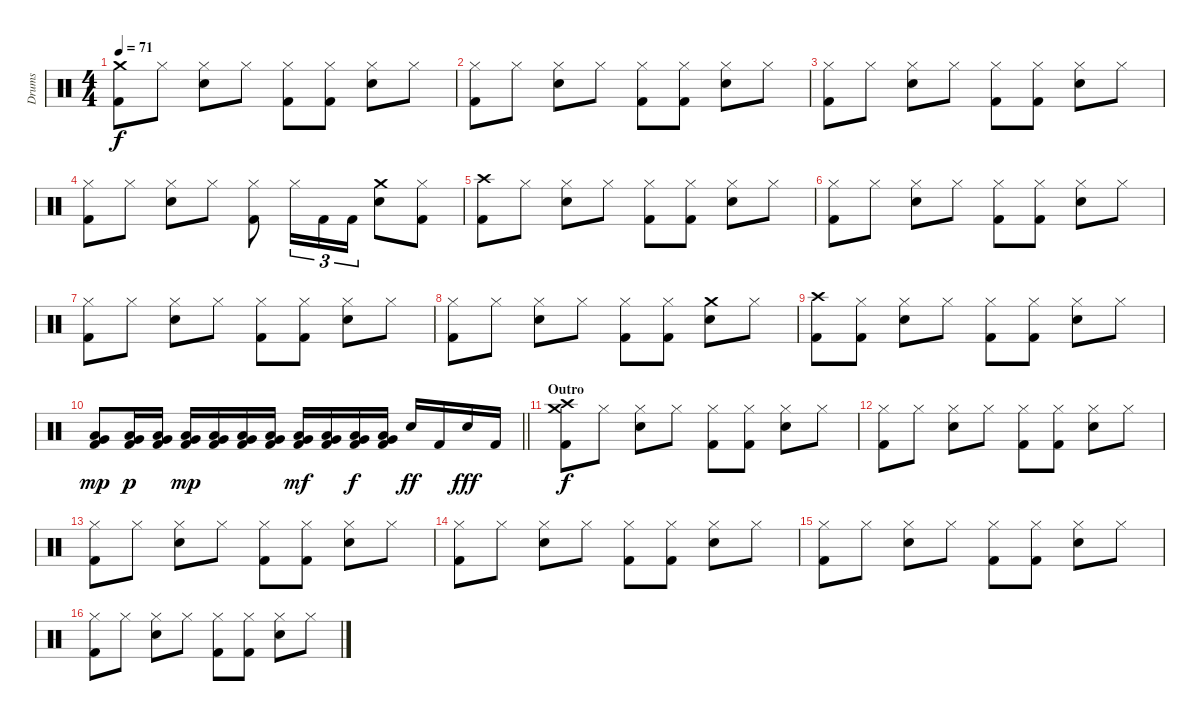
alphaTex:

\track ("Drums" "Drums") {instrument percussion}
\staff {score}
\articulation defaults
\ts (4 4)
\tempo 71
\clef neutral
\ks c
("Crash medium (hit)" "Kick (hit) 2").8{dy f} "Hi-Hat (closed)".8 ("Hi-Hat (closed)" "Snare (hit) 2").8 "Hi-Hat (closed)".8 ("Hi-Hat (closed)" "Kick (hit) 2").8 ("Hi-Hat (closed)" "Kick (hit) 2").8 ("Hi-Hat (closed)" "Snare (hit) 2").8 "Hi-Hat (closed)".8 |
("Hi-Hat (closed)" "Kick (hit) 2").8 "Hi-Hat (closed)".8 ("Hi-Hat (closed)" "Snare (hit) 2").8 "Hi-Hat (closed)".8 ("Hi-Hat (closed)" "Kick (hit) 2").8 ("Hi-Hat (closed)" "Kick (hit) 2").8 ("Hi-Hat (closed)" "Snare (hit) 2").8 "Hi-Hat (closed)".8 |
("Hi-Hat (closed)" "Kick (hit) 2").8 "Hi-Hat (closed)".8 ("Hi-Hat (closed)" "Snare (hit) 2").8 "Hi-Hat (closed)".8 ("Hi-Hat (closed)" "Kick (hit) 2").8 ("Hi-Hat (closed)" "Kick (hit) 2").8 ("Hi-Hat (closed)" "Snare (hit) 2").8 "Hi-Hat (closed)".8 |
("Hi-Hat (closed)" "Kick (hit) 2").8 "Hi-Hat (closed)".8 ("Hi-Hat (closed)" "Snare (hit) 2").8 "Hi-Hat (closed)".8 ("Hi-Hat (closed)" "Kick (hit) 2").8 "Hi-Hat (closed)".16{tu (3 2)} "Kick (hit) 2".16{tu (3 2)} "Kick (hit) 2".16{tu (3 2)} ("Crash medium (hit)" "Snare (hit) 2").8 ("Hi-Hat (closed)" "Kick (hit) 2").8 |
("Crash high (hit)" "Kick (hit) 2").8 "Hi-Hat (closed)".8 ("Hi-Hat (closed)" "Snare (hit) 2").8 "Hi-Hat (closed)".8 ("Hi-Hat (closed)" "Kick (hit) 2").8 ("Hi-Hat (closed)" "Kick (hit) 2").8 ("Hi-Hat (closed)" "Snare (hit) 2").8 "Hi-Hat (closed)".8 |
("Hi-Hat (closed)" "Kick (hit) 2").8 "Hi-Hat (closed)".8 ("Hi-Hat (closed)" "Snare (hit) 2").8 "Hi-Hat (closed)".8 ("Hi-Hat (closed)" "Kick (hit) 2").8 ("Hi-Hat (closed)" "Kick (hit) 2").8 ("Hi-Hat (closed)" "Snare (hit) 2").8 "Hi-Hat (closed)".8 |
("Hi-Hat (closed)" "Kick (hit) 2").8 "Hi-Hat (closed)".8 ("Hi-Hat (closed)" "Snare (hit) 2").8 "Hi-Hat (closed)".8 ("Hi-Hat (closed)" "Kick (hit) 2").8 ("Hi-Hat (closed)" "Kick (hit) 2").8 ("Hi-Hat (closed)" "Snare (hit) 2").8 "Hi-Hat (closed)".8 |
("Hi-Hat (closed)" "Kick (hit) 2").8 "Hi-Hat (closed)".8 ("Hi-Hat (closed)" "Snare (hit) 2").8 "Hi-Hat (closed)".8 ("Hi-Hat (closed)" "Kick (hit) 2").8 ("Hi-Hat (closed)" "Kick (hit) 2").8 ("Crash medium (hit)" "Snare (hit) 2").8 "Hi-Hat (closed)".8 |
("Crash high (hit)" "Kick (hit) 2").8 ("Hi-Hat (closed)" "Kick (hit) 2").8 ("Hi-Hat (closed)" "Snare (hit) 2").8 "Hi-Hat (closed)".8 ("Hi-Hat (closed)" "Kick (hit) 2").8 ("Hi-Hat (closed)" "Kick (hit) 2").8 ("Hi-Hat (closed)" "Snare (hit) 2").8 "Hi-Hat (closed)".8 |
\barLineRight lightlight
("Low Floor Tom (hit)" "Very Low Tom (hit)" "Kick (hit) 2").8{dy mp} ("Low Floor Tom (hit)" "Very Low Tom (hit)" "Kick (hit) 2").16{dy p} ("Low Floor Tom (hit)" "Very Low Tom (hit)" "Kick (hit) 2").16 ("Low Floor Tom (hit)" "Very Low Tom (hit)" "Kick (hit) 2").16{dy mp} ("Low Floor Tom (hit)" "Very Low Tom (hit)" "Kick (hit) 2").16 ("Low Floor Tom (hit)" "Very Low Tom (hit)" "Kick (hit) 2").16 ("Low Floor Tom (hit)" "Very Low Tom (hit)" "Kick (hit) 2").16 ("Low Floor Tom (hit)" "Very Low Tom (hit)" "Kick (hit) 2").16{dy mf} ("Low Floor Tom (hit)" "Very Low Tom (hit)" "Kick (hit) 2").16 ("Low Floor Tom (hit)" "Very Low Tom (hit)" "Kick (hit) 2").16{dy f} ("Low Floor Tom (hit)" "Very Low Tom (hit)" "Kick (hit) 2").16 "Snare (hit) 2".16{dy ff} "Kick (hit) 2".16 "Snare (hit) 2".16{dy fff} "Kick (hit) 2".16 |
\section ("" "Outro")
("Crash medium (hit)" "Crash high (hit)" "Kick (hit) 2").8{dy f} "Hi-Hat (closed)".8 ("Hi-Hat (closed)" "Snare (hit) 2").8 "Hi-Hat (closed)".8 ("Hi-Hat (closed)" "Kick (hit) 2").8 ("Hi-Hat (closed)" "Kick (hit) 2").8 ("Hi-Hat (closed)" "Snare (hit) 2").8 "Hi-Hat (closed)".8 |
("Hi-Hat (closed)" "Kick (hit) 2").8 "Hi-Hat (closed)".8 ("Hi-Hat (closed)" "Snare (hit) 2").8 "Hi-Hat (closed)".8 ("Hi-Hat (closed)" "Kick (hit) 2").8 ("Hi-Hat (closed)" "Kick (hit) 2").8 ("Hi-Hat (closed)" "Snare (hit) 2").8 "Hi-Hat (closed)".8 |
("Hi-Hat (closed)" "Kick (hit) 2").8 "Hi-Hat (closed)".8 ("Hi-Hat (closed)" "Snare (hit) 2").8 "Hi-Hat (closed)".8 ("Hi-Hat (closed)" "Kick (hit) 2").8 ("Hi-Hat (closed)" "Kick (hit) 2").8 ("Hi-Hat (closed)" "Snare (hit) 2").8 "Hi-Hat (closed)".8 |
("Hi-Hat (closed)" "Kick (hit) 2").8 "Hi-Hat (closed)".8 ("Hi-Hat (closed)" "Snare (hit) 2").8 "Hi-Hat (closed)".8 ("Hi-Hat (closed)" "Kick (hit) 2").8 ("Hi-Hat (closed)" "Kick (hit) 2").8 ("Hi-Hat (closed)" "Snare (hit) 2").8 "Hi-Hat (closed)".8 |
("Hi-Hat (closed)" "Kick (hit) 2").8 "Hi-Hat (closed)".8 ("Hi-Hat (closed)" "Snare (hit) 2").8 "Hi-Hat (closed)".8 ("Hi-Hat (closed)" "Kick (hit) 2").8 ("Hi-Hat (closed)" "Kick (hit) 2").8 ("Hi-Hat (closed)" "Snare (hit) 2").8 "Hi-Hat (closed)".8 |
("Hi-Hat (closed)" "Kick (hit) 2").8 "Hi-Hat (closed)".8 ("Hi-Hat (closed)" "Snare (hit) 2").8 "Hi-Hat (closed)".8 ("Hi-Hat (closed)" "Kick (hit) 2").8 ("Hi-Hat (closed)" "Kick (hit) 2").8 ("Hi-Hat (closed)" "Snare (hit) 2").8 "Hi-Hat (closed)".8
